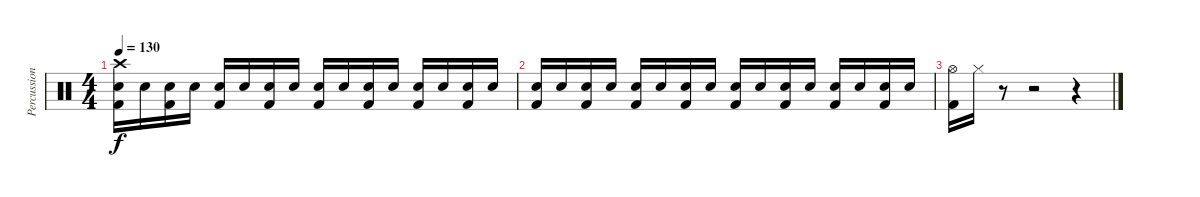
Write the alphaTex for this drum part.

\track ("Percussion" "Percussion") {instrument percussion}
\staff {score}
\articulation defaults
\ts (4 4)
\tempo 130
\clef neutral
\ks c
("Crash high (hit)" "Electric Snare (hit)" "Kick (hit) 2").16{dy f} "Electric Snare (hit)".16 ("Electric Snare (hit)" "Kick (hit) 2").16 "Electric Snare (hit)".16 ("Electric Snare (hit)" "Kick (hit) 2").16 "Electric Snare (hit)".16 ("Electric Snare (hit)" "Kick (hit) 2").16 "Electric Snare (hit)".16 ("Electric Snare (hit)" "Kick (hit) 2").16 "Electric Snare (hit)".16 ("Electric Snare (hit)" "Kick (hit) 2").16 "Electric Snare (hit)".16 ("Electric Snare (hit)" "Kick (hit) 2").16 "Electric Snare (hit)".16 ("Electric Snare (hit)" "Kick (hit) 2").16 "Electric Snare (hit)".16 |
("Electric Snare (hit)" "Kick (hit) 2").16 "Electric Snare (hit)".16 ("Electric Snare (hit)" "Kick (hit) 2").16 "Electric Snare (hit)".16 ("Electric Snare (hit)" "Kick (hit) 2").16 "Electric Snare (hit)".16 ("Electric Snare (hit)" "Kick (hit) 2").16 "Electric Snare (hit)".16 ("Electric Snare (hit)" "Kick (hit) 2").16 "Electric Snare (hit)".16 ("Electric Snare (hit)" "Kick (hit) 2").16 "Electric Snare (hit)".16 ("Electric Snare (hit)" "Kick (hit) 2").16 "Electric Snare (hit)".16 ("Electric Snare (hit)" "Kick (hit) 2").16 "Electric Snare (hit)".16 |
("Hi-Hat (open)" "Kick (hit) 2").16 "Hi-Hat (closed)".16 r.8 r.2 r.4
